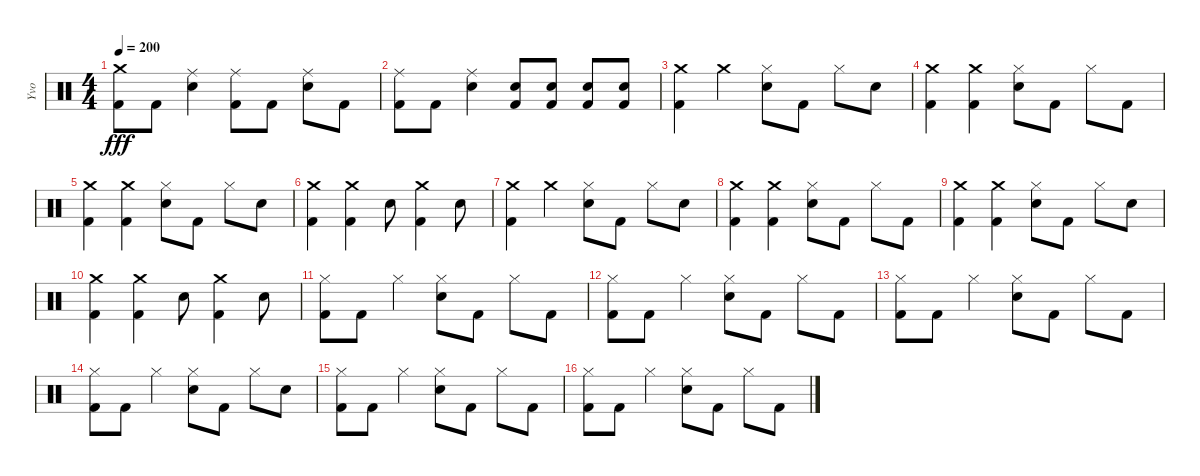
\track ("Yvo" "Yvo") {instrument percussion}
\staff {score}
\articulation defaults
\ts (4 4)
\tempo 200
\clef neutral
\ks c
("Crash medium (hit)" "Kick (hit) 2").8{dy fff} "Kick (hit) 2".8 ("Ride (middle)" "Electric Snare (hit)").4 ("Ride (middle)" "Kick (hit) 2").8 "Kick (hit) 2".8 ("Ride (middle)" "Electric Snare (hit)").8 "Kick (hit) 2".8 |
("Ride (middle)" "Kick (hit) 2").8 "Kick (hit) 2".8 ("Ride (middle)" "Electric Snare (hit)").4 ("Electric Snare (hit)" "Kick (hit) 2").8 ("Electric Snare (hit)" "Kick (hit) 2").8 ("Electric Snare (hit)" "Kick (hit) 2").8 ("Electric Snare (hit)" "Kick (hit) 2").8 |
("Crash medium (hit)" "Kick (hit) 2").4 "Crash medium (hit)".4 ("Hi-Hat (closed)" "Electric Snare (hit)").8 "Kick (hit) 2".8 "Hi-Hat (closed)".8 "Electric Snare (hit)".8 |
("Crash medium (hit)" "Kick (hit) 2").4 ("Crash medium (hit)" "Kick (hit) 2").4 ("Hi-Hat (closed)" "Electric Snare (hit)").8 "Kick (hit) 2".8 "Hi-Hat (closed)".8 "Kick (hit) 2".8 |
("Crash medium (hit)" "Kick (hit) 2").4 ("Crash medium (hit)" "Kick (hit) 2").4 ("Hi-Hat (closed)" "Electric Snare (hit)").8 "Kick (hit) 2".8 "Hi-Hat (closed)".8 "Electric Snare (hit)".8 |
("Crash medium (hit)" "Kick (hit) 2").4 ("Crash medium (hit)" "Kick (hit) 2").4 "Electric Snare (hit)".8 ("Crash medium (hit)" "Kick (hit) 2").4 "Electric Snare (hit)".8 |
("Crash medium (hit)" "Kick (hit) 2").4 "Crash medium (hit)".4 ("Hi-Hat (closed)" "Electric Snare (hit)").8 "Kick (hit) 2".8 "Hi-Hat (closed)".8 "Electric Snare (hit)".8 |
("Crash medium (hit)" "Kick (hit) 2").4 ("Crash medium (hit)" "Kick (hit) 2").4 ("Hi-Hat (closed)" "Electric Snare (hit)").8 "Kick (hit) 2".8 "Hi-Hat (closed)".8 "Kick (hit) 2".8 |
("Crash medium (hit)" "Kick (hit) 2").4 ("Crash medium (hit)" "Kick (hit) 2").4 ("Hi-Hat (closed)" "Electric Snare (hit)").8 "Kick (hit) 2".8 "Hi-Hat (closed)".8 "Electric Snare (hit)".8 |
("Crash medium (hit)" "Kick (hit) 2").4 ("Crash medium (hit)" "Kick (hit) 2").4 "Electric Snare (hit)".8 ("Crash medium (hit)" "Kick (hit) 2").4 "Electric Snare (hit)".8 |
("Hi-Hat (closed)" "Kick (hit) 2").8 "Kick (hit) 2".8 "Hi-Hat (closed)".4 ("Hi-Hat (closed)" "Electric Snare (hit)").8 "Kick (hit) 2".8 "Hi-Hat (closed)".8 "Kick (hit) 2".8 |
("Hi-Hat (closed)" "Kick (hit) 2").8 "Kick (hit) 2".8 "Hi-Hat (closed)".4 ("Hi-Hat (closed)" "Electric Snare (hit)").8 "Kick (hit) 2".8 "Hi-Hat (closed)".8 "Kick (hit) 2".8 |
("Hi-Hat (closed)" "Kick (hit) 2").8 "Kick (hit) 2".8 "Hi-Hat (closed)".4 ("Hi-Hat (closed)" "Electric Snare (hit)").8 "Kick (hit) 2".8 "Hi-Hat (closed)".8 "Kick (hit) 2".8 |
("Hi-Hat (closed)" "Kick (hit) 2").8 "Kick (hit) 2".8 "Hi-Hat (closed)".4 ("Hi-Hat (closed)" "Electric Snare (hit)").8 "Kick (hit) 2".8 "Hi-Hat (closed)".8 "Electric Snare (hit)".8 |
("Hi-Hat (closed)" "Kick (hit) 2").8 "Kick (hit) 2".8 "Hi-Hat (closed)".4 ("Hi-Hat (closed)" "Electric Snare (hit)").8 "Kick (hit) 2".8 "Hi-Hat (closed)".8 "Kick (hit) 2".8 |
("Hi-Hat (closed)" "Kick (hit) 2").8 "Kick (hit) 2".8 "Hi-Hat (closed)".4 ("Hi-Hat (closed)" "Electric Snare (hit)").8 "Kick (hit) 2".8 "Hi-Hat (closed)".8 "Kick (hit) 2".8
